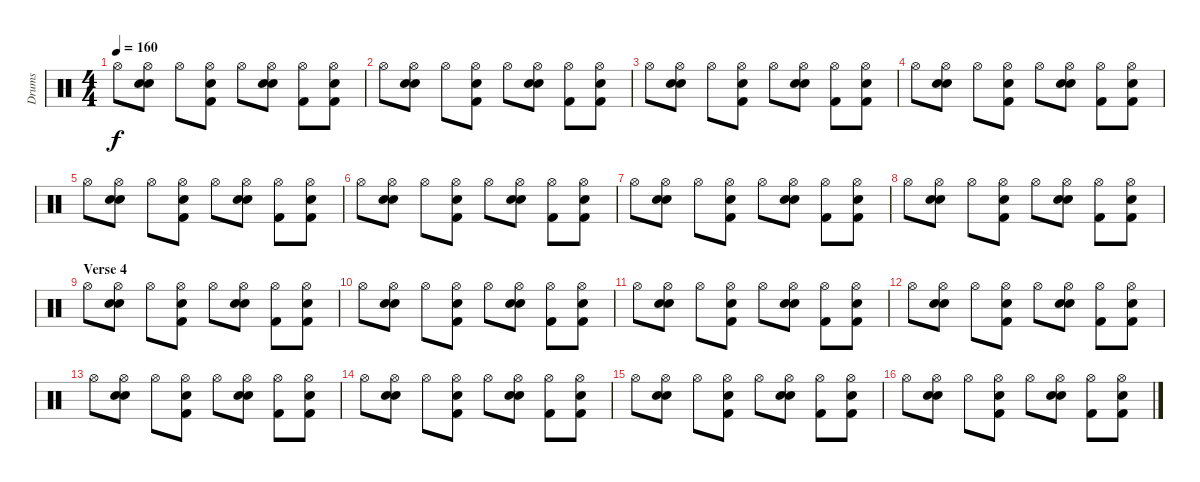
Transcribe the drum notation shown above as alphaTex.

\track ("Drums" "Drums") {instrument percussion}
\staff {score}
\articulation defaults
\ts (4 4)
\tempo 160
\clef neutral
\ks c "Hi-Hat (open)".8{dy f}
("Snare (hit) 2" "Hi-Hat (open)" "Hand Clap (hit)").8 "Hi-Hat (open)".8 ("Kick (hit) 2" "Hi-Hat (open)" "Hand Clap (hit)").8 "Hi-Hat (open)".8 ("Snare (hit) 2" "Hi-Hat (open)" "Hand Clap (hit)").8 ("Kick (hit) 2" "Hi-Hat (open)").8 ("Kick (hit) 2" "Hi-Hat (open)" "Hand Clap (hit)").8 |
"Hi-Hat (open)".8 ("Snare (hit) 2" "Hi-Hat (open)" "Hand Clap (hit)").8 "Hi-Hat (open)".8 ("Kick (hit) 2" "Hi-Hat (open)" "Hand Clap (hit)").8 "Hi-Hat (open)".8 ("Snare (hit) 2" "Hi-Hat (open)" "Hand Clap (hit)").8 ("Kick (hit) 2" "Hi-Hat (open)").8 ("Kick (hit) 2" "Hi-Hat (open)" "Hand Clap (hit)").8 |
"Hi-Hat (open)".8 ("Snare (hit) 2" "Hi-Hat (open)" "Hand Clap (hit)").8 "Hi-Hat (open)".8 ("Kick (hit) 2" "Hi-Hat (open)" "Hand Clap (hit)").8 "Hi-Hat (open)".8 ("Snare (hit) 2" "Hi-Hat (open)" "Hand Clap (hit)").8 ("Kick (hit) 2" "Hi-Hat (open)").8 ("Kick (hit) 2" "Hi-Hat (open)" "Hand Clap (hit)").8 |
"Hi-Hat (open)".8 ("Snare (hit) 2" "Hi-Hat (open)" "Hand Clap (hit)").8 "Hi-Hat (open)".8 ("Kick (hit) 2" "Hi-Hat (open)" "Hand Clap (hit)").8 "Hi-Hat (open)".8 ("Snare (hit) 2" "Hi-Hat (open)" "Hand Clap (hit)").8 ("Kick (hit) 2" "Hi-Hat (open)").8 ("Kick (hit) 2" "Hi-Hat (open)" "Hand Clap (hit)").8 |
"Hi-Hat (open)".8 ("Snare (hit) 2" "Hi-Hat (open)" "Hand Clap (hit)").8 "Hi-Hat (open)".8 ("Kick (hit) 2" "Hi-Hat (open)" "Hand Clap (hit)").8 "Hi-Hat (open)".8 ("Snare (hit) 2" "Hi-Hat (open)" "Hand Clap (hit)").8 ("Kick (hit) 2" "Hi-Hat (open)").8 ("Kick (hit) 2" "Hi-Hat (open)" "Hand Clap (hit)").8 |
"Hi-Hat (open)".8 ("Snare (hit) 2" "Hi-Hat (open)" "Hand Clap (hit)").8 "Hi-Hat (open)".8 ("Kick (hit) 2" "Hi-Hat (open)" "Hand Clap (hit)").8 "Hi-Hat (open)".8 ("Snare (hit) 2" "Hi-Hat (open)" "Hand Clap (hit)").8 ("Kick (hit) 2" "Hi-Hat (open)").8 ("Kick (hit) 2" "Hi-Hat (open)" "Hand Clap (hit)").8 |
"Hi-Hat (open)".8 ("Snare (hit) 2" "Hi-Hat (open)" "Hand Clap (hit)").8 "Hi-Hat (open)".8 ("Kick (hit) 2" "Hi-Hat (open)" "Hand Clap (hit)").8 "Hi-Hat (open)".8 ("Snare (hit) 2" "Hi-Hat (open)" "Hand Clap (hit)").8 ("Kick (hit) 2" "Hi-Hat (open)").8 ("Kick (hit) 2" "Hi-Hat (open)" "Hand Clap (hit)").8 |
"Hi-Hat (open)".8 ("Snare (hit) 2" "Hi-Hat (open)" "Hand Clap (hit)").8 "Hi-Hat (open)".8 ("Kick (hit) 2" "Hi-Hat (open)" "Hand Clap (hit)").8 "Hi-Hat (open)".8 ("Snare (hit) 2" "Hi-Hat (open)" "Hand Clap (hit)").8 ("Kick (hit) 2" "Hi-Hat (open)").8 ("Kick (hit) 2" "Hi-Hat (open)" "Hand Clap (hit)").8 |
\section ("" "Verse 4")
"Hi-Hat (open)".8 ("Snare (hit) 2" "Hi-Hat (open)" "Hand Clap (hit)").8 "Hi-Hat (open)".8 ("Kick (hit) 2" "Hi-Hat (open)" "Hand Clap (hit)").8 "Hi-Hat (open)".8 ("Snare (hit) 2" "Hi-Hat (open)" "Hand Clap (hit)").8 ("Kick (hit) 2" "Hi-Hat (open)").8 ("Kick (hit) 2" "Hi-Hat (open)" "Hand Clap (hit)").8 |
"Hi-Hat (open)".8 ("Snare (hit) 2" "Hi-Hat (open)" "Hand Clap (hit)").8 "Hi-Hat (open)".8 ("Kick (hit) 2" "Hi-Hat (open)" "Hand Clap (hit)").8 "Hi-Hat (open)".8 ("Snare (hit) 2" "Hi-Hat (open)" "Hand Clap (hit)").8 ("Kick (hit) 2" "Hi-Hat (open)").8 ("Kick (hit) 2" "Hi-Hat (open)" "Hand Clap (hit)").8 |
"Hi-Hat (open)".8 ("Snare (hit) 2" "Hi-Hat (open)" "Hand Clap (hit)").8 "Hi-Hat (open)".8 ("Kick (hit) 2" "Hi-Hat (open)" "Hand Clap (hit)").8 "Hi-Hat (open)".8 ("Snare (hit) 2" "Hi-Hat (open)" "Hand Clap (hit)").8 ("Kick (hit) 2" "Hi-Hat (open)").8 ("Kick (hit) 2" "Hi-Hat (open)" "Hand Clap (hit)").8 |
"Hi-Hat (open)".8 ("Snare (hit) 2" "Hi-Hat (open)" "Hand Clap (hit)").8 "Hi-Hat (open)".8 ("Kick (hit) 2" "Hi-Hat (open)" "Hand Clap (hit)").8 "Hi-Hat (open)".8 ("Snare (hit) 2" "Hi-Hat (open)" "Hand Clap (hit)").8 ("Kick (hit) 2" "Hi-Hat (open)").8 ("Kick (hit) 2" "Hi-Hat (open)" "Hand Clap (hit)").8 |
"Hi-Hat (open)".8 ("Snare (hit) 2" "Hi-Hat (open)" "Hand Clap (hit)").8 "Hi-Hat (open)".8 ("Kick (hit) 2" "Hi-Hat (open)" "Hand Clap (hit)").8 "Hi-Hat (open)".8 ("Snare (hit) 2" "Hi-Hat (open)" "Hand Clap (hit)").8 ("Kick (hit) 2" "Hi-Hat (open)").8 ("Kick (hit) 2" "Hi-Hat (open)" "Hand Clap (hit)").8 |
"Hi-Hat (open)".8 ("Snare (hit) 2" "Hi-Hat (open)" "Hand Clap (hit)").8 "Hi-Hat (open)".8 ("Kick (hit) 2" "Hi-Hat (open)" "Hand Clap (hit)").8 "Hi-Hat (open)".8 ("Snare (hit) 2" "Hi-Hat (open)" "Hand Clap (hit)").8 ("Kick (hit) 2" "Hi-Hat (open)").8 ("Kick (hit) 2" "Hi-Hat (open)" "Hand Clap (hit)").8 |
"Hi-Hat (open)".8 ("Snare (hit) 2" "Hi-Hat (open)" "Hand Clap (hit)").8 "Hi-Hat (open)".8 ("Kick (hit) 2" "Hi-Hat (open)" "Hand Clap (hit)").8 "Hi-Hat (open)".8 ("Snare (hit) 2" "Hi-Hat (open)" "Hand Clap (hit)").8 ("Kick (hit) 2" "Hi-Hat (open)").8 ("Kick (hit) 2" "Hi-Hat (open)" "Hand Clap (hit)").8 |
"Hi-Hat (open)".8 ("Snare (hit) 2" "Hi-Hat (open)" "Hand Clap (hit)").8 "Hi-Hat (open)".8 ("Kick (hit) 2" "Hi-Hat (open)" "Hand Clap (hit)").8 "Hi-Hat (open)".8 ("Snare (hit) 2" "Hi-Hat (open)" "Hand Clap (hit)").8 ("Kick (hit) 2" "Hi-Hat (open)").8 ("Kick (hit) 2" "Hi-Hat (open)" "Hand Clap (hit)").8
